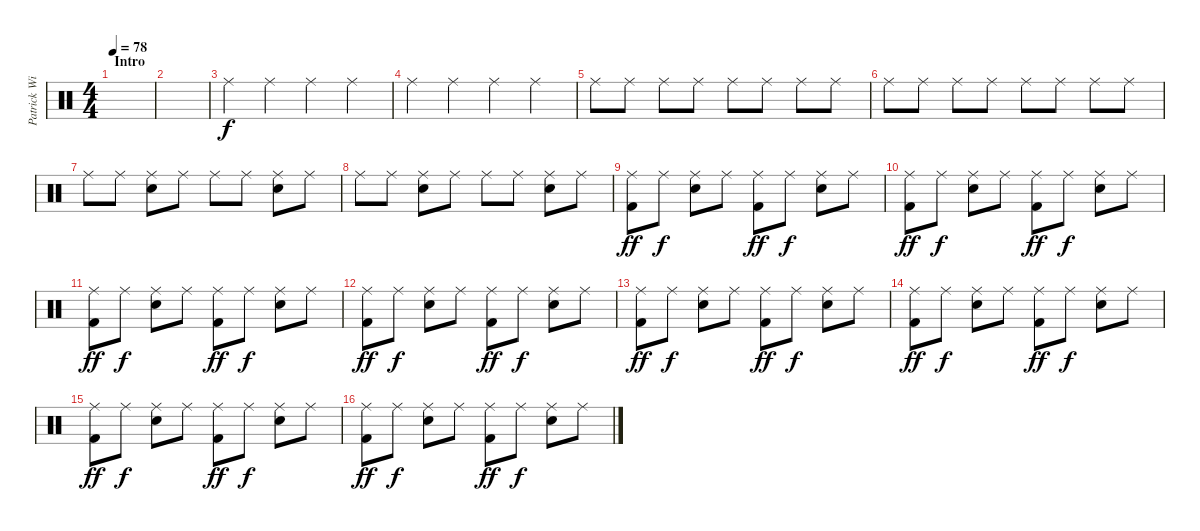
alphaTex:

\track ("Patrick Wilson" "Patrick Wi") {instrument percussion}
\staff {score}
\articulation defaults
\ts (4 4)
\section ("" "Intro")
\tempo 78
\clef neutral
\ks c
|
|
"Ride (middle)".4 "Ride (middle)".4 "Ride (middle)".4 "Ride (middle)".4 |
"Ride (middle)".4 "Ride (middle)".4 "Ride (middle)".4 "Ride (middle)".4 |
"Ride (middle)".8 "Ride (middle)".8 "Ride (middle)".8 "Ride (middle)".8 "Ride (middle)".8 "Ride (middle)".8 "Ride (middle)".8 "Ride (middle)".8 |
"Ride (middle)".8 "Ride (middle)".8 "Ride (middle)".8 "Ride (middle)".8 "Ride (middle)".8 "Ride (middle)".8 "Ride (middle)".8 "Ride (middle)".8 |
"Ride (middle)".8 "Ride (middle)".8 ("Ride (middle)" "Snare (hit) 2").8 "Ride (middle)".8 "Ride (middle)".8 "Ride (middle)".8 ("Ride (middle)" "Snare (hit) 2").8 "Ride (middle)".8 |
"Ride (middle)".8 "Ride (middle)".8 ("Ride (middle)" "Snare (hit) 2").8 "Ride (middle)".8 "Ride (middle)".8 "Ride (middle)".8 ("Ride (middle)" "Snare (hit) 2").8 "Ride (middle)".8 |
("Ride (middle)" "Kick (hit) 2").8{dy ff} "Ride (middle)".8{dy f} ("Ride (middle)" "Snare (hit) 2").8 "Ride (middle)".8 ("Ride (middle)" "Kick (hit) 2").8{dy ff} "Ride (middle)".8{dy f} ("Ride (middle)" "Snare (hit) 2").8 "Ride (middle)".8 |
("Ride (middle)" "Kick (hit) 2").8{dy ff} "Ride (middle)".8{dy f} ("Ride (middle)" "Snare (hit) 2").8 "Ride (middle)".8 ("Ride (middle)" "Kick (hit) 2").8{dy ff} "Ride (middle)".8{dy f} ("Ride (middle)" "Snare (hit) 2").8 "Ride (middle)".8 |
("Ride (middle)" "Kick (hit) 2").8{dy ff} "Ride (middle)".8{dy f} ("Ride (middle)" "Snare (hit) 2").8 "Ride (middle)".8 ("Ride (middle)" "Kick (hit) 2").8{dy ff} "Ride (middle)".8{dy f} ("Ride (middle)" "Snare (hit) 2").8 "Ride (middle)".8 |
("Ride (middle)" "Kick (hit) 2").8{dy ff} "Ride (middle)".8{dy f} ("Ride (middle)" "Snare (hit) 2").8 "Ride (middle)".8 ("Ride (middle)" "Kick (hit) 2").8{dy ff} "Ride (middle)".8{dy f} ("Ride (middle)" "Snare (hit) 2").8 "Ride (middle)".8 |
("Ride (middle)" "Kick (hit) 2").8{dy ff} "Ride (middle)".8{dy f} ("Ride (middle)" "Snare (hit) 2").8 "Ride (middle)".8 ("Ride (middle)" "Kick (hit) 2").8{dy ff} "Ride (middle)".8{dy f} ("Ride (middle)" "Snare (hit) 2").8 "Ride (middle)".8 |
("Ride (middle)" "Kick (hit) 2").8{dy ff} "Ride (middle)".8{dy f} ("Ride (middle)" "Snare (hit) 2").8 "Ride (middle)".8 ("Ride (middle)" "Kick (hit) 2").8{dy ff} "Ride (middle)".8{dy f} ("Ride (middle)" "Snare (hit) 2").8 "Ride (middle)".8 |
("Ride (middle)" "Kick (hit) 2").8{dy ff} "Ride (middle)".8{dy f} ("Ride (middle)" "Snare (hit) 2").8 "Ride (middle)".8 ("Ride (middle)" "Kick (hit) 2").8{dy ff} "Ride (middle)".8{dy f} ("Ride (middle)" "Snare (hit) 2").8 "Ride (middle)".8 |
("Ride (middle)" "Kick (hit) 2").8{dy ff} "Ride (middle)".8{dy f} ("Ride (middle)" "Snare (hit) 2").8 "Ride (middle)".8 ("Ride (middle)" "Kick (hit) 2").8{dy ff} "Ride (middle)".8{dy f} ("Ride (middle)" "Snare (hit) 2").8 "Ride (middle)".8
